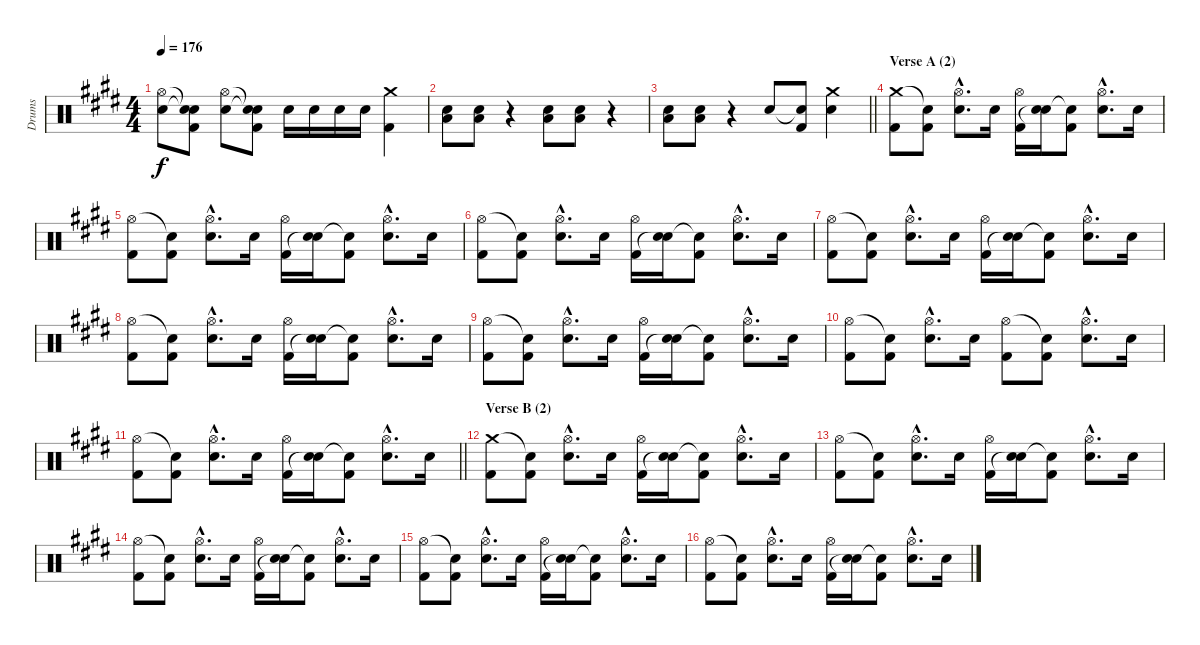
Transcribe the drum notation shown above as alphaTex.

\track ("Drums" "Drums") {instrument percussion}
\staff {score}
\articulation defaults
\ts (4 4)
\tempo 176
\clef neutral
\ks c#minor
("Hi-Hat (open)" "Electric Snare (hit)").8{dy f} ("Snare (hit)"{t} "Snare (hit)"{t} "Kick (hit) 2").8 ("Hi-Hat (open)" "Electric Snare (hit)").8 ("Snare (hit)"{t} "Snare (hit)"{t} "Kick (hit) 2").8 "Electric Snare (hit)".16 "Electric Snare (hit)".16 "Electric Snare (hit)".16 "Electric Snare (hit)".16 ("Crash medium (hit)" "Kick (hit) 2").4 |
("Electric Snare (hit)" "Low Floor Tom (hit)").8 ("Electric Snare (hit)" "Low Floor Tom (hit)").8 r.4 ("Electric Snare (hit)" "Low Floor Tom (hit)").8 ("Electric Snare (hit)" "Low Floor Tom (hit)").8 r.4 |
\barLineRight lightlight
("Electric Snare (hit)" "Low Floor Tom (hit)").8 ("Electric Snare (hit)" "Low Floor Tom (hit)").8 r.4 "Electric Snare (hit)".8 ("Snare (hit)"{t} "Kick (hit) 2").8 ("Crash medium (hit)" "Electric Snare (hit)").4 |
\section ("" "Verse A (2)")
("Crash medium (hit)" "Kick (hit) 2").8 ("Snare (hit)"{t} "Kick (hit) 2").8 ("Hi-Hat (open)"{hac} "Electric Snare (hit)"{hac}).8{d} "Electric Snare (hit)".16 ("Hi-Hat (open)" "Kick (hit) 2").16 ("Electric Snare (hit)" "Snare (hit)"{t}).16 ("Snare (hit)"{t} "Kick (hit) 2").8 ("Hi-Hat (open)"{hac} "Electric Snare (hit)"{hac}).8{d} "Electric Snare (hit)".16 |
("Hi-Hat (open)" "Kick (hit) 2").8 ("Snare (hit)"{t} "Kick (hit) 2").8 ("Hi-Hat (open)"{hac} "Electric Snare (hit)"{hac}).8{d} "Electric Snare (hit)".16 ("Hi-Hat (open)" "Kick (hit) 2").16 ("Electric Snare (hit)" "Snare (hit)"{t}).16 ("Snare (hit)"{t} "Kick (hit) 2").8 ("Hi-Hat (open)"{hac} "Electric Snare (hit)"{hac}).8{d} "Electric Snare (hit)".16 |
("Hi-Hat (open)" "Kick (hit) 2").8 ("Snare (hit)"{t} "Kick (hit) 2").8 ("Hi-Hat (open)"{hac} "Electric Snare (hit)"{hac}).8{d} "Electric Snare (hit)".16 ("Hi-Hat (open)" "Kick (hit) 2").16 ("Electric Snare (hit)" "Snare (hit)"{t}).16 ("Snare (hit)"{t} "Kick (hit) 2").8 ("Hi-Hat (open)"{hac} "Electric Snare (hit)"{hac}).8{d} "Electric Snare (hit)".16 |
("Hi-Hat (open)" "Kick (hit) 2").8 ("Snare (hit)"{t} "Kick (hit) 2").8 ("Hi-Hat (open)"{hac} "Electric Snare (hit)"{hac}).8{d} "Electric Snare (hit)".16 ("Hi-Hat (open)" "Kick (hit) 2").16 ("Electric Snare (hit)" "Snare (hit)"{t}).16 ("Snare (hit)"{t} "Kick (hit) 2").8 ("Hi-Hat (open)"{hac} "Electric Snare (hit)"{hac}).8{d} "Electric Snare (hit)".16 |
("Hi-Hat (open)" "Kick (hit) 2").8 ("Snare (hit)"{t} "Kick (hit) 2").8 ("Hi-Hat (open)"{hac} "Electric Snare (hit)"{hac}).8{d} "Electric Snare (hit)".16 ("Hi-Hat (open)" "Kick (hit) 2").16 ("Electric Snare (hit)" "Snare (hit)"{t}).16 ("Snare (hit)"{t} "Kick (hit) 2").8 ("Hi-Hat (open)"{hac} "Electric Snare (hit)"{hac}).8{d} "Electric Snare (hit)".16 |
("Hi-Hat (open)" "Kick (hit) 2").8 ("Snare (hit)"{t} "Kick (hit) 2").8 ("Hi-Hat (open)"{hac} "Electric Snare (hit)"{hac}).8{d} "Electric Snare (hit)".16 ("Hi-Hat (open)" "Kick (hit) 2").16 ("Electric Snare (hit)" "Snare (hit)"{t}).16 ("Snare (hit)"{t} "Kick (hit) 2").8 ("Hi-Hat (open)"{hac} "Electric Snare (hit)"{hac}).8{d} "Electric Snare (hit)".16 |
("Hi-Hat (open)" "Kick (hit) 2").8 ("Snare (hit)"{t} "Kick (hit) 2").8 ("Hi-Hat (open)"{hac} "Electric Snare (hit)"{hac}).8{d} "Electric Snare (hit)".16 ("Hi-Hat (open)" "Kick (hit) 2").8 ("Snare (hit)"{t} "Kick (hit) 2").8 ("Hi-Hat (open)"{hac} "Electric Snare (hit)"{hac}).8{d} "Electric Snare (hit)".16 |
\barLineRight lightlight
("Hi-Hat (open)" "Kick (hit) 2").8 ("Snare (hit)"{t} "Kick (hit) 2").8 ("Hi-Hat (open)"{hac} "Electric Snare (hit)"{hac}).8{d} "Electric Snare (hit)".16 ("Hi-Hat (open)" "Kick (hit) 2").16 ("Electric Snare (hit)" "Snare (hit)"{t}).16 ("Snare (hit)"{t} "Kick (hit) 2").8 ("Hi-Hat (open)"{hac} "Electric Snare (hit)"{hac}).8{d} "Electric Snare (hit)".16 |
\section ("" "Verse B (2)")
("Crash medium (hit)" "Kick (hit) 2").8 ("Snare (hit)"{t} "Kick (hit) 2").8 ("Hi-Hat (open)"{hac} "Electric Snare (hit)"{hac}).8{d} "Electric Snare (hit)".16 ("Hi-Hat (open)" "Kick (hit) 2").16 ("Electric Snare (hit)" "Snare (hit)"{t}).16 ("Snare (hit)"{t} "Kick (hit) 2").8 ("Hi-Hat (open)"{hac} "Electric Snare (hit)"{hac}).8{d} "Electric Snare (hit)".16 |
("Hi-Hat (open)" "Kick (hit) 2").8 ("Snare (hit)"{t} "Kick (hit) 2").8 ("Hi-Hat (open)"{hac} "Electric Snare (hit)"{hac}).8{d} "Electric Snare (hit)".16 ("Hi-Hat (open)" "Kick (hit) 2").16 ("Electric Snare (hit)" "Snare (hit)"{t}).16 ("Snare (hit)"{t} "Kick (hit) 2").8 ("Hi-Hat (open)"{hac} "Electric Snare (hit)"{hac}).8{d} "Electric Snare (hit)".16 |
("Hi-Hat (open)" "Kick (hit) 2").8 ("Snare (hit)"{t} "Kick (hit) 2").8 ("Hi-Hat (open)"{hac} "Electric Snare (hit)"{hac}).8{d} "Electric Snare (hit)".16 ("Hi-Hat (open)" "Kick (hit) 2").16 ("Electric Snare (hit)" "Snare (hit)"{t}).16 ("Snare (hit)"{t} "Kick (hit) 2").8 ("Hi-Hat (open)"{hac} "Electric Snare (hit)"{hac}).8{d} "Electric Snare (hit)".16 |
("Hi-Hat (open)" "Kick (hit) 2").8 ("Snare (hit)"{t} "Kick (hit) 2").8 ("Hi-Hat (open)"{hac} "Electric Snare (hit)"{hac}).8{d} "Electric Snare (hit)".16 ("Hi-Hat (open)" "Kick (hit) 2").16 ("Electric Snare (hit)" "Snare (hit)"{t}).16 ("Snare (hit)"{t} "Kick (hit) 2").8 ("Hi-Hat (open)"{hac} "Electric Snare (hit)"{hac}).8{d} "Electric Snare (hit)".16 |
("Hi-Hat (open)" "Kick (hit) 2").8 ("Snare (hit)"{t} "Kick (hit) 2").8 ("Hi-Hat (open)"{hac} "Electric Snare (hit)"{hac}).8{d} "Electric Snare (hit)".16 ("Hi-Hat (open)" "Kick (hit) 2").16 ("Electric Snare (hit)" "Snare (hit)"{t}).16 ("Snare (hit)"{t} "Kick (hit) 2").8 ("Hi-Hat (open)"{hac} "Electric Snare (hit)"{hac}).8{d} "Electric Snare (hit)".16
